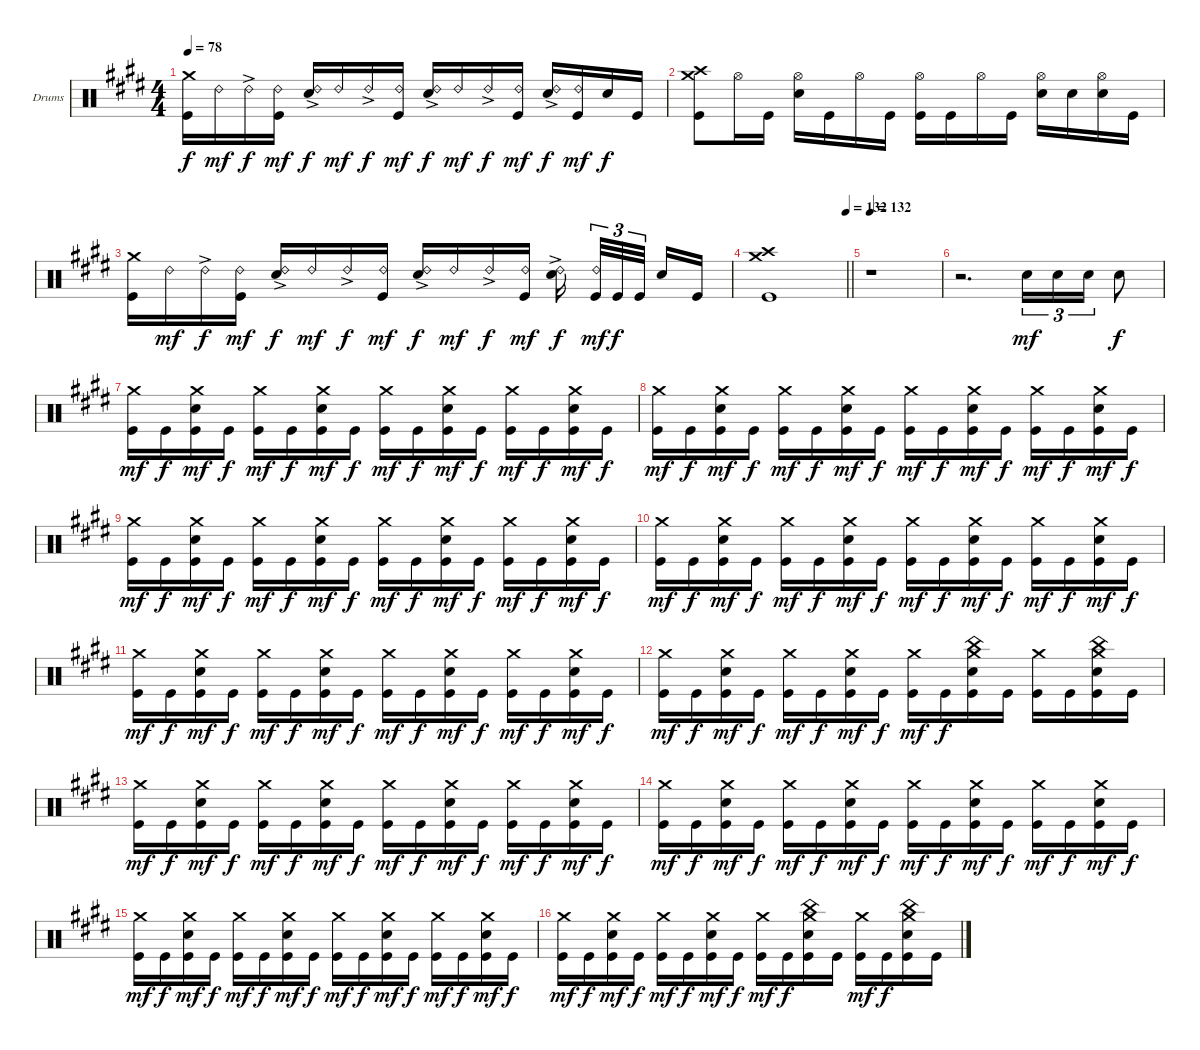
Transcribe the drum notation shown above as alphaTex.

\bracketExtendMode groupsimilarinstruments
\firstSystemTrackNameOrientation horizontal
\otherSystemsTrackNameOrientation horizontal
\track ("Drumkit" "Drums") {instrument percussion}
\staff {score}
\articulation defaults
\ts (4 4)
\tempo 78
\clef neutral
\ks c#minor
("Crash medium (hit)" "Kick (hit)").16{dy f} "Ride (bell) 2".16{dy mf} "Ride (bell) 2"{ac}.16{dy f} ("Ride (bell) 2" "Kick (hit)").16{dy mf} ("Ride (bell) 2"{ac} "Snare (hit) 2").16{dy f} "Ride (bell) 2".16{dy mf} "Ride (bell) 2"{ac}.16{dy f} ("Ride (bell) 2" "Kick (hit)").16{dy mf} ("Ride (bell) 2"{ac} "Snare (hit) 2").16{dy f} "Ride (bell) 2".16{dy mf} "Ride (bell) 2"{ac}.16{dy f} ("Ride (bell) 2" "Kick (hit)").16{dy mf} ("Ride (bell) 2"{ac} "Snare (hit) 2").16{dy f} ("Ride (bell) 2" "Kick (hit)").16{dy mf} "Snare (hit) 2".16{dy f} "Kick (hit)".16 |
("Crash medium (hit)" "Crash high (hit)" "Kick (hit)").8 "Hi-Hat (open)".16 "Kick (hit)".16 ("Hi-Hat (open)" "Snare (hit) 2").16 "Kick (hit)".16 "Hi-Hat (open)".16 "Kick (hit)".16 ("Hi-Hat (open)" "Kick (hit)").16 "Kick (hit)".16 "Hi-Hat (open)".16 "Kick (hit)".16 ("Hi-Hat (open)" "Snare (hit) 2").16 "Snare (hit) 2".16 ("Hi-Hat (open)" "Snare (hit) 2").16 "Kick (hit)".16 |
("Crash medium (hit)" "Kick (hit)").16 "Ride (bell) 2".16{dy mf} "Ride (bell) 2"{ac}.16{dy f} ("Ride (bell) 2" "Kick (hit)").16{dy mf} ("Ride (bell) 2"{ac} "Snare (hit) 2").16{dy f} "Ride (bell) 2".16{dy mf} "Ride (bell) 2"{ac}.16{dy f} ("Ride (bell) 2" "Kick (hit)").16{dy mf} ("Ride (bell) 2"{ac} "Snare (hit) 2").16{dy f} "Ride (bell) 2".16{dy mf} "Ride (bell) 2"{ac}.16{dy f} ("Ride (bell) 2" "Kick (hit)").16{dy mf} ("Ride (bell) 2"{ac} "Snare (hit) 2").16{dy f} ("Ride (bell) 2" "Kick (hit)").32{tu (3 2) dy mf} "Kick (hit)".32{tu (3 2) dy f} "Kick (hit)".32{tu (3 2)} "Snare (hit) 2".16 "Kick (hit)".16 |
\tempo (132 1)
\barLineRight lightlight
("Crash medium (hit)" "Crash high (hit)" "Kick (hit)").1 |
\tempo 132
r.1 |
r.2{d} "Snare (hit) 2".16{tu (3 2) dy mf} "Snare (hit) 2".16{tu (3 2)} "Snare (hit) 2".16{tu (3 2)} "Snare (hit) 2".8{dy f} |
("Crash medium (hit)" "Kick (hit)").16{dy mf} "Kick (hit)".16{dy f} ("Crash medium (hit)" "Snare (hit) 2" "Kick (hit)").16{dy mf} "Kick (hit)".16{dy f} ("Crash medium (hit)" "Kick (hit)").16{dy mf} "Kick (hit)".16{dy f} ("Crash medium (hit)" "Snare (hit) 2" "Kick (hit)").16{dy mf} "Kick (hit)".16{dy f} ("Crash medium (hit)" "Kick (hit)").16{dy mf} "Kick (hit)".16{dy f} ("Crash medium (hit)" "Snare (hit) 2" "Kick (hit)").16{dy mf} "Kick (hit)".16{dy f} ("Crash medium (hit)" "Kick (hit)").16{dy mf} "Kick (hit)".16{dy f} ("Crash medium (hit)" "Snare (hit) 2" "Kick (hit)").16{dy mf} "Kick (hit)".16{dy f} |
("Crash medium (hit)" "Kick (hit)").16{dy mf} "Kick (hit)".16{dy f} ("Crash medium (hit)" "Snare (hit) 2" "Kick (hit)").16{dy mf} "Kick (hit)".16{dy f} ("Crash medium (hit)" "Kick (hit)").16{dy mf} "Kick (hit)".16{dy f} ("Crash medium (hit)" "Snare (hit) 2" "Kick (hit)").16{dy mf} "Kick (hit)".16{dy f} ("Crash medium (hit)" "Kick (hit)").16{dy mf} "Kick (hit)".16{dy f} ("Crash medium (hit)" "Snare (hit) 2" "Kick (hit)").16{dy mf} "Kick (hit)".16{dy f} ("Crash medium (hit)" "Kick (hit)").16{dy mf} "Kick (hit)".16{dy f} ("Crash medium (hit)" "Snare (hit) 2" "Kick (hit)").16{dy mf} "Kick (hit)".16{dy f} |
("Crash medium (hit)" "Kick (hit)").16{dy mf} "Kick (hit)".16{dy f} ("Crash medium (hit)" "Snare (hit) 2" "Kick (hit)").16{dy mf} "Kick (hit)".16{dy f} ("Crash medium (hit)" "Kick (hit)").16{dy mf} "Kick (hit)".16{dy f} ("Crash medium (hit)" "Snare (hit) 2" "Kick (hit)").16{dy mf} "Kick (hit)".16{dy f} ("Crash medium (hit)" "Kick (hit)").16{dy mf} "Kick (hit)".16{dy f} ("Crash medium (hit)" "Snare (hit) 2" "Kick (hit)").16{dy mf} "Kick (hit)".16{dy f} ("Crash medium (hit)" "Kick (hit)").16{dy mf} "Kick (hit)".16{dy f} ("Crash medium (hit)" "Snare (hit) 2" "Kick (hit)").16{dy mf} "Kick (hit)".16{dy f} |
("Crash medium (hit)" "Kick (hit)").16{dy mf} "Kick (hit)".16{dy f} ("Crash medium (hit)" "Snare (hit) 2" "Kick (hit)").16{dy mf} "Kick (hit)".16{dy f} ("Crash medium (hit)" "Kick (hit)").16{dy mf} "Kick (hit)".16{dy f} ("Crash medium (hit)" "Snare (hit) 2" "Kick (hit)").16{dy mf} "Kick (hit)".16{dy f} ("Crash medium (hit)" "Kick (hit)").16{dy mf} "Kick (hit)".16{dy f} ("Crash medium (hit)" "Snare (hit) 2" "Kick (hit)").16{dy mf} "Kick (hit)".16{dy f} ("Crash medium (hit)" "Kick (hit)").16{dy mf} "Kick (hit)".16{dy f} ("Crash medium (hit)" "Snare (hit) 2" "Kick (hit)").16{dy mf} "Kick (hit)".16{dy f} |
("Crash medium (hit)" "Kick (hit)").16{dy mf} "Kick (hit)".16{dy f} ("Crash medium (hit)" "Snare (hit) 2" "Kick (hit)").16{dy mf} "Kick (hit)".16{dy f} ("Crash medium (hit)" "Kick (hit)").16{dy mf} "Kick (hit)".16{dy f} ("Crash medium (hit)" "Snare (hit) 2" "Kick (hit)").16{dy mf} "Kick (hit)".16{dy f} ("Crash medium (hit)" "Kick (hit)").16{dy mf} "Kick (hit)".16{dy f} ("Crash medium (hit)" "Snare (hit) 2" "Kick (hit)").16{dy mf} "Kick (hit)".16{dy f} ("Crash medium (hit)" "Kick (hit)").16{dy mf} "Kick (hit)".16{dy f} ("Crash medium (hit)" "Snare (hit) 2" "Kick (hit)").16{dy mf} "Kick (hit)".16{dy f} |
("Crash medium (hit)" "Kick (hit)").16{dy mf} "Kick (hit)".16{dy f} ("Crash medium (hit)" "Snare (hit) 2" "Kick (hit)").16{dy mf} "Kick (hit)".16{dy f} ("Crash medium (hit)" "Kick (hit)").16{dy mf} "Kick (hit)".16{dy f} ("Crash medium (hit)" "Snare (hit) 2" "Kick (hit)").16{dy mf} "Kick (hit)".16{dy f} ("Crash medium (hit)" "Kick (hit)").16{dy mf} "Kick (hit)".16{dy f} ("China (hit)" "Crash medium (hit)" "Snare (hit) 2" "Kick (hit)").16 "Kick (hit)".16 ("Crash medium (hit)" "Kick (hit)").16 "Kick (hit)".16 ("China (hit)" "Crash medium (hit)" "Snare (hit) 2" "Kick (hit)").16 "Kick (hit)".16 |
("Crash medium (hit)" "Kick (hit)").16{dy mf} "Kick (hit)".16{dy f} ("Crash medium (hit)" "Snare (hit) 2" "Kick (hit)").16{dy mf} "Kick (hit)".16{dy f} ("Crash medium (hit)" "Kick (hit)").16{dy mf} "Kick (hit)".16{dy f} ("Crash medium (hit)" "Snare (hit) 2" "Kick (hit)").16{dy mf} "Kick (hit)".16{dy f} ("Crash medium (hit)" "Kick (hit)").16{dy mf} "Kick (hit)".16{dy f} ("Crash medium (hit)" "Snare (hit) 2" "Kick (hit)").16{dy mf} "Kick (hit)".16{dy f} ("Crash medium (hit)" "Kick (hit)").16{dy mf} "Kick (hit)".16{dy f} ("Crash medium (hit)" "Snare (hit) 2" "Kick (hit)").16{dy mf} "Kick (hit)".16{dy f} |
("Crash medium (hit)" "Kick (hit)").16{dy mf} "Kick (hit)".16{dy f} ("Crash medium (hit)" "Snare (hit) 2" "Kick (hit)").16{dy mf} "Kick (hit)".16{dy f} ("Crash medium (hit)" "Kick (hit)").16{dy mf} "Kick (hit)".16{dy f} ("Crash medium (hit)" "Snare (hit) 2" "Kick (hit)").16{dy mf} "Kick (hit)".16{dy f} ("Crash medium (hit)" "Kick (hit)").16{dy mf} "Kick (hit)".16{dy f} ("Crash medium (hit)" "Snare (hit) 2" "Kick (hit)").16{dy mf} "Kick (hit)".16{dy f} ("Crash medium (hit)" "Kick (hit)").16{dy mf} "Kick (hit)".16{dy f} ("Crash medium (hit)" "Snare (hit) 2" "Kick (hit)").16{dy mf} "Kick (hit)".16{dy f} |
("Crash medium (hit)" "Kick (hit)").16{dy mf} "Kick (hit)".16{dy f} ("Crash medium (hit)" "Snare (hit) 2" "Kick (hit)").16{dy mf} "Kick (hit)".16{dy f} ("Crash medium (hit)" "Kick (hit)").16{dy mf} "Kick (hit)".16{dy f} ("Crash medium (hit)" "Snare (hit) 2" "Kick (hit)").16{dy mf} "Kick (hit)".16{dy f} ("Crash medium (hit)" "Kick (hit)").16{dy mf} "Kick (hit)".16{dy f} ("Crash medium (hit)" "Snare (hit) 2" "Kick (hit)").16{dy mf} "Kick (hit)".16{dy f} ("Crash medium (hit)" "Kick (hit)").16{dy mf} "Kick (hit)".16{dy f} ("Crash medium (hit)" "Snare (hit) 2" "Kick (hit)").16{dy mf} "Kick (hit)".16{dy f} |
("Crash medium (hit)" "Kick (hit)").16{dy mf} "Kick (hit)".16{dy f} ("Crash medium (hit)" "Snare (hit) 2" "Kick (hit)").16{dy mf} "Kick (hit)".16{dy f} ("Crash medium (hit)" "Kick (hit)").16{dy mf} "Kick (hit)".16{dy f} ("Crash medium (hit)" "Snare (hit) 2" "Kick (hit)").16{dy mf} "Kick (hit)".16{dy f} ("Crash medium (hit)" "Kick (hit)").16{dy mf} "Kick (hit)".16{dy f} ("China (hit)" "Crash medium (hit)" "Snare (hit) 2" "Kick (hit)").16 "Kick (hit)".16 ("Crash medium (hit)" "Kick (hit)").16{dy mf} "Kick (hit)".16{dy f} ("China (hit)" "Crash medium (hit)" "Snare (hit) 2" "Kick (hit)").16 "Kick (hit)".16
